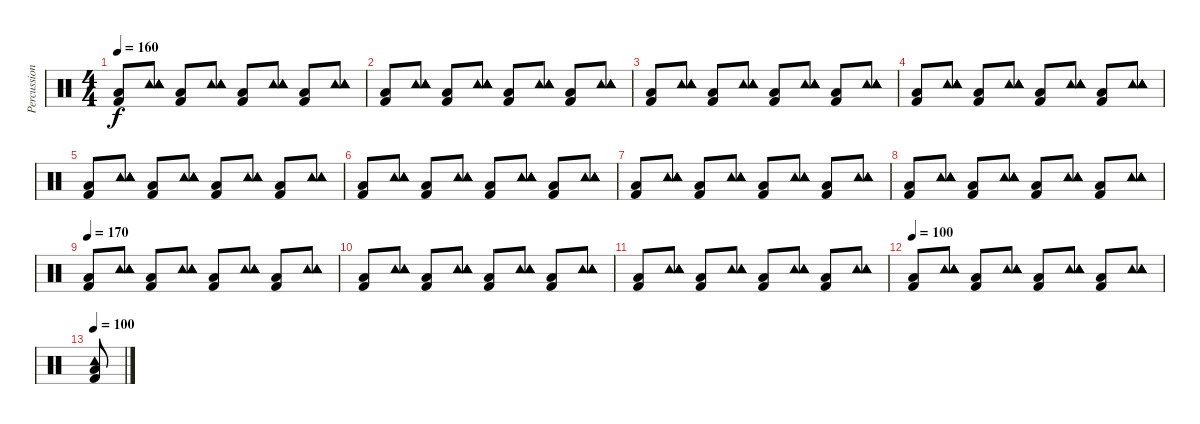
\track ("Percussion" "Percussion") {instrument percussion}
\staff {score}
\articulation defaults
\ts (4 4)
\tempo 160
\clef neutral
\ks c
("Kick (hit) 2" "Low Floor Tom (hit)").8{dy f} ("Tambourine (hit)" "Tambourine (hit)" "Tambourine (hit)" "Tambourine (hit)").8 ("Kick (hit) 2" "Low Floor Tom (hit)").8 ("Tambourine (hit)" "Tambourine (hit)" "Tambourine (hit)" "Tambourine (hit)").8 ("Kick (hit) 2" "Low Floor Tom (hit)").8 ("Tambourine (hit)" "Tambourine (hit)" "Tambourine (hit)" "Tambourine (hit)").8 ("Kick (hit) 2" "Low Floor Tom (hit)").8 ("Tambourine (hit)" "Tambourine (hit)" "Tambourine (hit)" "Tambourine (hit)").8 |
("Kick (hit) 2" "Low Floor Tom (hit)").8 ("Tambourine (hit)" "Tambourine (hit)" "Tambourine (hit)" "Tambourine (hit)").8 ("Kick (hit) 2" "Low Floor Tom (hit)").8 ("Tambourine (hit)" "Tambourine (hit)" "Tambourine (hit)" "Tambourine (hit)").8 ("Kick (hit) 2" "Low Floor Tom (hit)").8 ("Tambourine (hit)" "Tambourine (hit)" "Tambourine (hit)" "Tambourine (hit)").8 ("Kick (hit) 2" "Low Floor Tom (hit)").8 ("Tambourine (hit)" "Tambourine (hit)" "Tambourine (hit)" "Tambourine (hit)").8 |
("Kick (hit) 2" "Low Floor Tom (hit)").8 ("Tambourine (hit)" "Tambourine (hit)" "Tambourine (hit)" "Tambourine (hit)").8 ("Kick (hit) 2" "Low Floor Tom (hit)").8 ("Tambourine (hit)" "Tambourine (hit)" "Tambourine (hit)" "Tambourine (hit)").8 ("Kick (hit) 2" "Low Floor Tom (hit)").8 ("Tambourine (hit)" "Tambourine (hit)" "Tambourine (hit)" "Tambourine (hit)").8 ("Kick (hit) 2" "Low Floor Tom (hit)").8 ("Tambourine (hit)" "Tambourine (hit)" "Tambourine (hit)" "Tambourine (hit)").8 |
("Kick (hit) 2" "Low Floor Tom (hit)").8 ("Tambourine (hit)" "Tambourine (hit)" "Tambourine (hit)" "Tambourine (hit)").8 ("Kick (hit) 2" "Low Floor Tom (hit)").8 ("Tambourine (hit)" "Tambourine (hit)" "Tambourine (hit)" "Tambourine (hit)").8 ("Kick (hit) 2" "Low Floor Tom (hit)").8 ("Tambourine (hit)" "Tambourine (hit)" "Tambourine (hit)" "Tambourine (hit)").8 ("Kick (hit) 2" "Low Floor Tom (hit)").8 ("Tambourine (hit)" "Tambourine (hit)" "Tambourine (hit)" "Tambourine (hit)").8 |
("Kick (hit) 2" "Low Floor Tom (hit)").8 ("Tambourine (hit)" "Tambourine (hit)" "Tambourine (hit)" "Tambourine (hit)").8 ("Kick (hit) 2" "Low Floor Tom (hit)").8 ("Tambourine (hit)" "Tambourine (hit)" "Tambourine (hit)" "Tambourine (hit)").8 ("Kick (hit) 2" "Low Floor Tom (hit)").8 ("Tambourine (hit)" "Tambourine (hit)" "Tambourine (hit)" "Tambourine (hit)").8 ("Kick (hit) 2" "Low Floor Tom (hit)").8 ("Tambourine (hit)" "Tambourine (hit)" "Tambourine (hit)" "Tambourine (hit)").8 |
("Kick (hit) 2" "Low Floor Tom (hit)").8 ("Tambourine (hit)" "Tambourine (hit)" "Tambourine (hit)" "Tambourine (hit)").8 ("Kick (hit) 2" "Low Floor Tom (hit)").8 ("Tambourine (hit)" "Tambourine (hit)" "Tambourine (hit)" "Tambourine (hit)").8 ("Kick (hit) 2" "Low Floor Tom (hit)").8 ("Tambourine (hit)" "Tambourine (hit)" "Tambourine (hit)" "Tambourine (hit)").8 ("Kick (hit) 2" "Low Floor Tom (hit)").8 ("Tambourine (hit)" "Tambourine (hit)" "Tambourine (hit)" "Tambourine (hit)").8 |
("Kick (hit) 2" "Low Floor Tom (hit)").8 ("Tambourine (hit)" "Tambourine (hit)" "Tambourine (hit)" "Tambourine (hit)").8 ("Kick (hit) 2" "Low Floor Tom (hit)").8 ("Tambourine (hit)" "Tambourine (hit)" "Tambourine (hit)" "Tambourine (hit)").8 ("Kick (hit) 2" "Low Floor Tom (hit)").8 ("Tambourine (hit)" "Tambourine (hit)" "Tambourine (hit)" "Tambourine (hit)").8 ("Kick (hit) 2" "Low Floor Tom (hit)").8 ("Tambourine (hit)" "Tambourine (hit)" "Tambourine (hit)" "Tambourine (hit)").8 |
("Kick (hit) 2" "Low Floor Tom (hit)").8 ("Tambourine (hit)" "Tambourine (hit)" "Tambourine (hit)" "Tambourine (hit)").8 ("Kick (hit) 2" "Low Floor Tom (hit)").8 ("Tambourine (hit)" "Tambourine (hit)" "Tambourine (hit)" "Tambourine (hit)").8 ("Kick (hit) 2" "Low Floor Tom (hit)").8 ("Tambourine (hit)" "Tambourine (hit)" "Tambourine (hit)" "Tambourine (hit)").8 ("Kick (hit) 2" "Low Floor Tom (hit)").8 ("Tambourine (hit)" "Tambourine (hit)" "Tambourine (hit)" "Tambourine (hit)").8 |
\tempo 170
("Kick (hit) 2" "Low Floor Tom (hit)").8 ("Tambourine (hit)" "Tambourine (hit)" "Tambourine (hit)" "Tambourine (hit)").8 ("Kick (hit) 2" "Low Floor Tom (hit)").8 ("Tambourine (hit)" "Tambourine (hit)" "Tambourine (hit)" "Tambourine (hit)").8 ("Kick (hit) 2" "Low Floor Tom (hit)").8 ("Tambourine (hit)" "Tambourine (hit)" "Tambourine (hit)" "Tambourine (hit)").8 ("Kick (hit) 2" "Low Floor Tom (hit)").8 ("Tambourine (hit)" "Tambourine (hit)" "Tambourine (hit)" "Tambourine (hit)").8 |
("Kick (hit) 2" "Low Floor Tom (hit)").8 ("Tambourine (hit)" "Tambourine (hit)" "Tambourine (hit)" "Tambourine (hit)").8 ("Kick (hit) 2" "Low Floor Tom (hit)").8 ("Tambourine (hit)" "Tambourine (hit)" "Tambourine (hit)" "Tambourine (hit)").8 ("Kick (hit) 2" "Low Floor Tom (hit)").8 ("Tambourine (hit)" "Tambourine (hit)" "Tambourine (hit)" "Tambourine (hit)").8 ("Kick (hit) 2" "Low Floor Tom (hit)").8 ("Tambourine (hit)" "Tambourine (hit)" "Tambourine (hit)" "Tambourine (hit)").8 |
("Kick (hit) 2" "Low Floor Tom (hit)").8 ("Tambourine (hit)" "Tambourine (hit)" "Tambourine (hit)" "Tambourine (hit)").8 ("Kick (hit) 2" "Low Floor Tom (hit)").8 ("Tambourine (hit)" "Tambourine (hit)" "Tambourine (hit)" "Tambourine (hit)").8 ("Kick (hit) 2" "Low Floor Tom (hit)").8 ("Tambourine (hit)" "Tambourine (hit)" "Tambourine (hit)" "Tambourine (hit)").8 ("Kick (hit) 2" "Low Floor Tom (hit)").8 ("Tambourine (hit)" "Tambourine (hit)" "Tambourine (hit)" "Tambourine (hit)").8 |
\tempo 100
("Kick (hit) 2" "Low Floor Tom (hit)").8 ("Tambourine (hit)" "Tambourine (hit)" "Tambourine (hit)" "Tambourine (hit)").8 ("Kick (hit) 2" "Low Floor Tom (hit)").8 ("Tambourine (hit)" "Tambourine (hit)" "Tambourine (hit)" "Tambourine (hit)").8 ("Kick (hit) 2" "Low Floor Tom (hit)").8 ("Tambourine (hit)" "Tambourine (hit)" "Tambourine (hit)" "Tambourine (hit)").8 ("Kick (hit) 2" "Low Floor Tom (hit)").8 ("Tambourine (hit)" "Tambourine (hit)" "Tambourine (hit)" "Tambourine (hit)").8 |
\tempo 100
("Low Floor Tom (hit)" "Kick (hit) 2" "Tambourine (hit)").8
